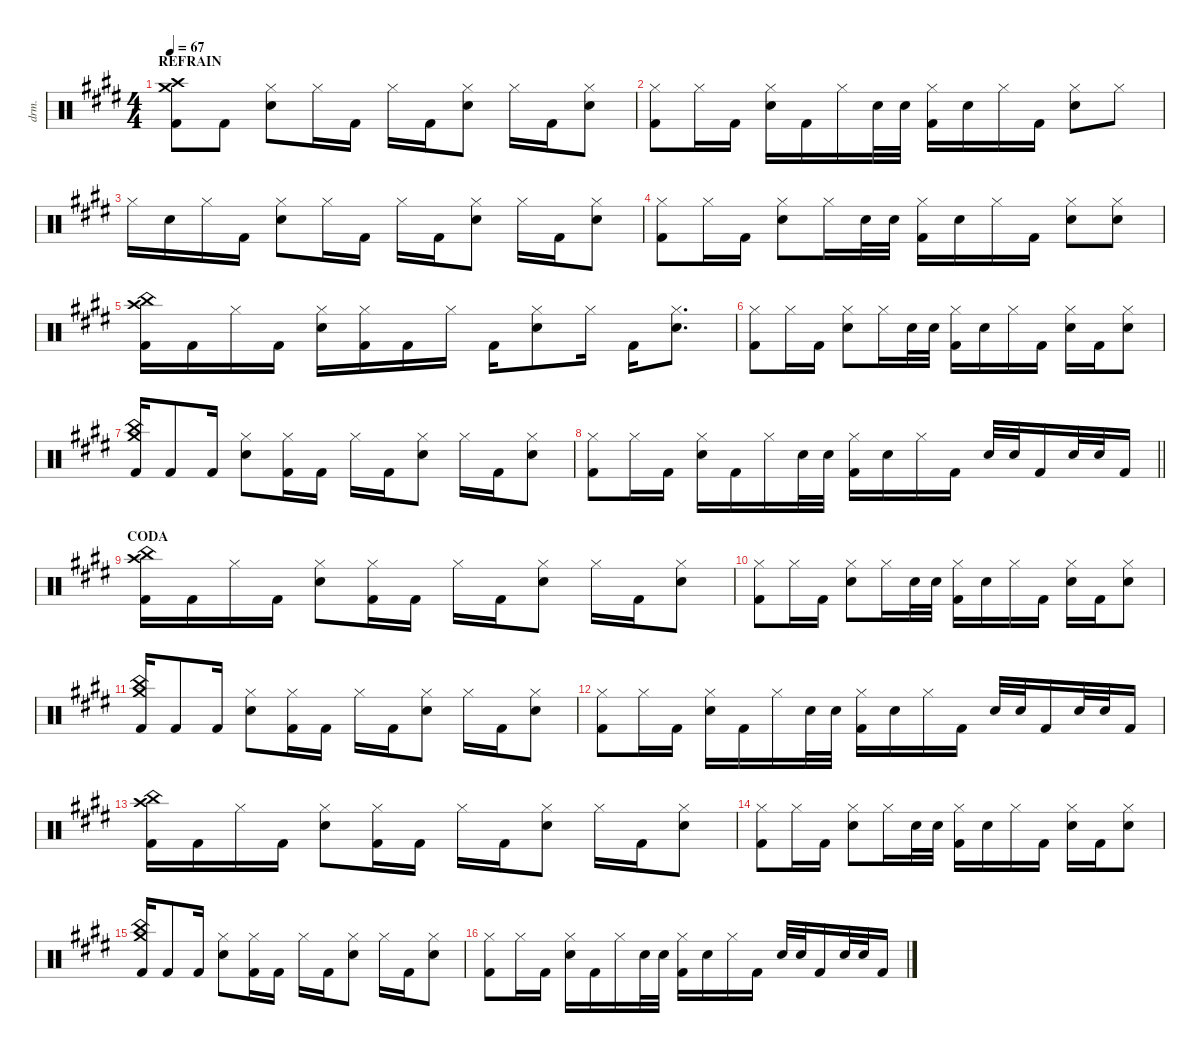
\defaultSystemsLayout 4
\hideDynamics
\bracketExtendMode groupsimilarinstruments
\otherSystemsTrackNameOrientation horizontal
\track ("Drums" "drm.") {defaultSystemsLayout 4 instrument percussion}
\staff {score}
\articulation defaults
\ts (4 4)
\section ("" "REFRAIN")
\tempo 67
\clef neutral
\ks c#minor
("Crash high (hit)"{acc forcenatural} "Kick (hit) 2"{acc forcenatural} "Crash medium (hit)"{acc forcenatural}).8{dy f beam Down} "Kick (hit) 2"{acc forcenatural}.8{beam Down} ("Snare (hit) 2"{acc forcenatural} "Hi-Hat (closed)"{acc forcenatural}).8{beam Down} "Hi-Hat (closed)"{acc forcenatural}.16{beam Down} "Kick (hit) 2"{acc forcenatural}.16{beam Down} "Hi-Hat (closed)"{acc forcenatural}.16{beam Down} "Kick (hit) 2"{acc forcenatural}.16{beam Down} ("Snare (hit) 2"{acc forcenatural} "Hi-Hat (closed)"{acc forcenatural}).8{beam Down} "Hi-Hat (closed)"{acc forcenatural}.16{beam Down} "Kick (hit) 2"{acc forcenatural}.16{beam Down} ("Snare (hit) 2"{acc forcenatural} "Hi-Hat (closed)"{acc forcenatural}).8{beam Down} |
("Kick (hit) 2"{acc forcenatural} "Hi-Hat (closed)"{acc forcenatural}).8{beam Down} "Hi-Hat (closed)"{acc forcenatural}.16{beam Down} "Kick (hit) 2"{acc forcenatural}.16{beam Down} ("Snare (hit) 2"{acc forcenatural} "Hi-Hat (closed)"{acc forcenatural}).16{beam Down} "Kick (hit) 2"{acc forcenatural}.16{beam Down} "Hi-Hat (closed)"{acc forcenatural}.16{beam Down} "Snare (hit) 2"{acc forcenatural}.32{beam Down} "Snare (hit) 2"{acc forcenatural}.32{beam Down} ("Kick (hit) 2"{acc forcenatural} "Hi-Hat (closed)"{acc forcenatural}).16{beam Down} "Snare (hit) 2"{acc forcenatural}.16{beam Down} "Hi-Hat (closed)"{acc forcenatural}.16{beam Down} "Kick (hit) 2"{acc forcenatural}.16{beam Down} ("Snare (hit) 2"{acc forcenatural} "Hi-Hat (closed)"{acc forcenatural}).8{beam Down} "Hi-Hat (closed)"{acc forcenatural}.8{beam Down} |
"Hi-Hat (closed)"{acc forcenatural}.16{beam Down} "Snare (hit) 2"{acc forcenatural}.16{beam Down} "Hi-Hat (closed)"{acc forcenatural}.16{beam Down} "Kick (hit) 2"{acc forcenatural}.16{beam Down} ("Snare (hit) 2"{acc forcenatural} "Hi-Hat (closed)"{acc forcenatural}).8{beam Down} "Hi-Hat (closed)"{acc forcenatural}.16{beam Down} "Kick (hit) 2"{acc forcenatural}.16{beam Down} "Hi-Hat (closed)"{acc forcenatural}.16{beam Down} "Kick (hit) 2"{acc forcenatural}.16{beam Down} ("Snare (hit) 2"{acc forcenatural} "Hi-Hat (closed)"{acc forcenatural}).8{beam Down} "Hi-Hat (closed)"{acc forcenatural}.16{beam Down} "Kick (hit) 2"{acc forcenatural}.16{beam Down} ("Snare (hit) 2"{acc forcenatural} "Hi-Hat (closed)"{acc forcenatural}).8{beam Down} |
("Kick (hit) 2"{acc forcenatural} "Hi-Hat (closed)"{acc forcenatural}).8{beam Down} "Hi-Hat (closed)"{acc forcenatural}.16{beam Down} "Kick (hit) 2"{acc forcenatural}.16{beam Down} ("Snare (hit) 2"{acc forcenatural} "Hi-Hat (closed)"{acc forcenatural}).8{beam Down} "Hi-Hat (closed)"{acc forcenatural}.16{beam Down} "Snare (hit) 2"{acc forcenatural}.32{beam Down} "Snare (hit) 2"{acc forcenatural}.32{beam Down} ("Kick (hit) 2"{acc forcenatural} "Hi-Hat (closed)"{acc forcenatural}).16{beam Down} "Snare (hit) 2"{acc forcenatural}.16{beam Down} "Hi-Hat (closed)"{acc forcenatural}.16{beam Down} "Kick (hit) 2"{acc forcenatural}.16{beam Down} ("Snare (hit) 2"{acc forcenatural} "Hi-Hat (closed)"{acc forcenatural}).8{beam Down} ("Snare (hit) 2"{acc forcenatural} "Hi-Hat (closed)"{acc forcenatural}).8{beam Down} |
("China (hit)"{acc forcenatural} "Crash high (hit)"{acc forcenatural} "Kick (hit) 2"{acc forcenatural}).16{beam Down} "Kick (hit) 2"{acc forcenatural}.16{beam Down} "Hi-Hat (closed)"{acc forcenatural}.16{beam Down} "Kick (hit) 2"{acc forcenatural}.16{beam Down} ("Snare (hit) 2"{acc forcenatural} "Hi-Hat (closed)"{acc forcenatural}).16{beam Down} ("Kick (hit) 2"{acc forcenatural} "Hi-Hat (closed)"{acc forcenatural}).16{beam Down} "Kick (hit) 2"{acc forcenatural}.16{beam Down} "Hi-Hat (closed)"{acc forcenatural}.16{beam Down} "Kick (hit) 2"{acc forcenatural}.16{beam Down} ("Snare (hit) 2"{acc forcenatural} "Hi-Hat (closed)"{acc forcenatural}).8{beam Down} "Hi-Hat (closed)"{acc forcenatural}.16{beam Down} "Kick (hit) 2"{acc forcenatural}.16{beam Down} ("Snare (hit) 2"{acc forcenatural} "Hi-Hat (closed)"{acc forcenatural}).8{d beam Down} |
("Kick (hit) 2"{acc forcenatural} "Hi-Hat (closed)"{acc forcenatural}).8{beam Down} "Hi-Hat (closed)"{acc forcenatural}.16{beam Down} "Kick (hit) 2"{acc forcenatural}.16{beam Down} ("Snare (hit) 2"{acc forcenatural} "Hi-Hat (closed)"{acc forcenatural}).8{beam Down} "Hi-Hat (closed)"{acc forcenatural}.16{beam Down} "Snare (hit) 2"{acc forcenatural}.32{beam Down} "Snare (hit) 2"{acc forcenatural}.32{beam Down} ("Kick (hit) 2"{acc forcenatural} "Hi-Hat (closed)"{acc forcenatural}).16{beam Down} "Snare (hit) 2"{acc forcenatural}.16{beam Down} "Hi-Hat (closed)"{acc forcenatural}.16{beam Down} "Kick (hit) 2"{acc forcenatural}.16{beam Down} ("Snare (hit) 2"{acc forcenatural} "Hi-Hat (closed)"{acc forcenatural}).16{beam Down} "Kick (hit) 2"{acc forcenatural}.16{beam Down} ("Snare (hit) 2"{acc forcenatural} "Hi-Hat (closed)"{acc forcenatural}).8{beam Down} |
("China (hit)"{acc forcenatural} "Crash medium (hit)"{acc forcenatural} "Kick (hit) 2"{acc forcenatural}).16{beam Up} "Kick (hit) 2"{acc forcenatural}.8{beam Up} "Kick (hit) 2"{acc forcenatural}.16{beam Up} ("Snare (hit) 2"{acc forcenatural} "Hi-Hat (closed)"{acc forcenatural}).8{beam Down} ("Kick (hit) 2"{acc forcenatural} "Hi-Hat (closed)"{acc forcenatural}).16{beam Down} "Kick (hit) 2"{acc forcenatural}.16{beam Down} "Hi-Hat (closed)"{acc forcenatural}.16{beam Down} "Kick (hit) 2"{acc forcenatural}.16{beam Down} ("Snare (hit) 2"{acc forcenatural} "Hi-Hat (closed)"{acc forcenatural}).8{beam Down} "Hi-Hat (closed)"{acc forcenatural}.16{beam Down} "Kick (hit) 2"{acc forcenatural}.16{beam Down} ("Snare (hit) 2"{acc forcenatural} "Hi-Hat (closed)"{acc forcenatural}).8{beam Down} |
\barLineRight lightlight
("Kick (hit) 2"{acc forcenatural} "Hi-Hat (closed)"{acc forcenatural}).8{beam Down} "Hi-Hat (closed)"{acc forcenatural}.16{beam Down} "Kick (hit) 2"{acc forcenatural}.16{beam Down} ("Snare (hit) 2"{acc forcenatural} "Hi-Hat (closed)"{acc forcenatural}).16{beam Down} "Kick (hit) 2"{acc forcenatural}.16{beam Down} "Hi-Hat (closed)"{acc forcenatural}.16{beam Down} "Snare (hit) 2"{acc forcenatural}.32{beam Down} "Snare (hit) 2"{acc forcenatural}.32{beam Down} ("Kick (hit) 2"{acc forcenatural} "Hi-Hat (closed)"{acc forcenatural}).16{beam Down} "Snare (hit) 2"{acc forcenatural}.16{beam Down} "Hi-Hat (closed)"{acc forcenatural}.16{beam Down} "Kick (hit) 2"{acc forcenatural}.16{beam Down} "Snare (hit) 2"{acc forcenatural}.32{beam Up} "Snare (hit) 2"{acc forcenatural}.32{beam Up} "Kick (hit) 2"{acc forcenatural}.16{beam Up} "Snare (hit) 2"{acc forcenatural}.32{dy mf beam Up} "Snare (hit) 2"{acc forcenatural}.32{dy f beam Up} "Kick (hit) 2"{acc forcenatural}.16{beam Up} |
\section ("" "CODA")
("China (hit)"{acc forcenatural} "Crash high (hit)"{acc forcenatural} "Kick (hit) 2"{acc forcenatural}).16{beam Down} "Kick (hit) 2"{acc forcenatural}.16{beam Down} "Hi-Hat (closed)"{acc forcenatural}.16{beam Down} "Kick (hit) 2"{acc forcenatural}.16{beam Down} ("Snare (hit) 2"{acc forcenatural} "Hi-Hat (closed)"{acc forcenatural}).8{beam Down} ("Kick (hit) 2"{acc forcenatural} "Hi-Hat (closed)"{acc forcenatural}).16{beam Down} "Kick (hit) 2"{acc forcenatural}.16{beam Down} "Hi-Hat (closed)"{acc forcenatural}.16{beam Down} "Kick (hit) 2"{acc forcenatural}.16{beam Down} ("Snare (hit) 2"{acc forcenatural} "Hi-Hat (closed)"{acc forcenatural}).8{beam Down} "Hi-Hat (closed)"{acc forcenatural}.16{beam Down} "Kick (hit) 2"{acc forcenatural}.16{beam Down} ("Snare (hit) 2"{acc forcenatural} "Hi-Hat (closed)"{acc forcenatural}).8{beam Down} |
("Kick (hit) 2"{acc forcenatural} "Hi-Hat (closed)"{acc forcenatural}).8{beam Down} "Hi-Hat (closed)"{acc forcenatural}.16{beam Down} "Kick (hit) 2"{acc forcenatural}.16{beam Down} ("Snare (hit) 2"{acc forcenatural} "Hi-Hat (closed)"{acc forcenatural}).8{beam Down} "Hi-Hat (closed)"{acc forcenatural}.16{beam Down} "Snare (hit) 2"{acc forcenatural}.32{beam Down} "Snare (hit) 2"{acc forcenatural}.32{beam Down} ("Kick (hit) 2"{acc forcenatural} "Hi-Hat (closed)"{acc forcenatural}).16{beam Down} "Snare (hit) 2"{acc forcenatural}.16{beam Down} "Hi-Hat (closed)"{acc forcenatural}.16{beam Down} "Kick (hit) 2"{acc forcenatural}.16{beam Down} ("Snare (hit) 2"{acc forcenatural} "Hi-Hat (closed)"{acc forcenatural}).16{beam Down} "Kick (hit) 2"{acc forcenatural}.16{beam Down} ("Snare (hit) 2"{acc forcenatural} "Hi-Hat (closed)"{acc forcenatural}).8{beam Down} |
("China (hit)"{acc forcenatural} "Crash medium (hit)"{acc forcenatural} "Kick (hit) 2"{acc forcenatural}).16{beam Up} "Kick (hit) 2"{acc forcenatural}.8{beam Up} "Kick (hit) 2"{acc forcenatural}.16{beam Up} ("Snare (hit) 2"{acc forcenatural} "Hi-Hat (closed)"{acc forcenatural}).8{beam Down} ("Kick (hit) 2"{acc forcenatural} "Hi-Hat (closed)"{acc forcenatural}).16{beam Down} "Kick (hit) 2"{acc forcenatural}.16{beam Down} "Hi-Hat (closed)"{acc forcenatural}.16{beam Down} "Kick (hit) 2"{acc forcenatural}.16{beam Down} ("Snare (hit) 2"{acc forcenatural} "Hi-Hat (closed)"{acc forcenatural}).8{beam Down} "Hi-Hat (closed)"{acc forcenatural}.16{beam Down} "Kick (hit) 2"{acc forcenatural}.16{beam Down} ("Snare (hit) 2"{acc forcenatural} "Hi-Hat (closed)"{acc forcenatural}).8{beam Down} |
("Kick (hit) 2"{acc forcenatural} "Hi-Hat (closed)"{acc forcenatural}).8{beam Down} "Hi-Hat (closed)"{acc forcenatural}.16{beam Down} "Kick (hit) 2"{acc forcenatural}.16{beam Down} ("Snare (hit) 2"{acc forcenatural} "Hi-Hat (closed)"{acc forcenatural}).16{beam Down} "Kick (hit) 2"{acc forcenatural}.16{beam Down} "Hi-Hat (closed)"{acc forcenatural}.16{beam Down} "Snare (hit) 2"{acc forcenatural}.32{beam Down} "Snare (hit) 2"{acc forcenatural}.32{beam Down} ("Kick (hit) 2"{acc forcenatural} "Hi-Hat (closed)"{acc forcenatural}).16{beam Down} "Snare (hit) 2"{acc forcenatural}.16{beam Down} "Hi-Hat (closed)"{acc forcenatural}.16{beam Down} "Kick (hit) 2"{acc forcenatural}.16{beam Down} "Snare (hit) 2"{acc forcenatural}.32{beam Up} "Snare (hit) 2"{acc forcenatural}.32{beam Up} "Kick (hit) 2"{acc forcenatural}.16{beam Up} "Snare (hit) 2"{acc forcenatural}.32{dy mf beam Up} "Snare (hit) 2"{acc forcenatural}.32{dy f beam Up} "Kick (hit) 2"{acc forcenatural}.16{beam Up} |
("China (hit)"{acc forcenatural} "Crash high (hit)"{acc forcenatural} "Kick (hit) 2"{acc forcenatural}).16{beam Down} "Kick (hit) 2"{acc forcenatural}.16{beam Down} "Hi-Hat (closed)"{acc forcenatural}.16{beam Down} "Kick (hit) 2"{acc forcenatural}.16{beam Down} ("Snare (hit) 2"{acc forcenatural} "Hi-Hat (closed)"{acc forcenatural}).8{beam Down} ("Kick (hit) 2"{acc forcenatural} "Hi-Hat (closed)"{acc forcenatural}).16{beam Down} "Kick (hit) 2"{acc forcenatural}.16{beam Down} "Hi-Hat (closed)"{acc forcenatural}.16{beam Down} "Kick (hit) 2"{acc forcenatural}.16{beam Down} ("Snare (hit) 2"{acc forcenatural} "Hi-Hat (closed)"{acc forcenatural}).8{beam Down} "Hi-Hat (closed)"{acc forcenatural}.16{beam Down} "Kick (hit) 2"{acc forcenatural}.16{beam Down} ("Snare (hit) 2"{acc forcenatural} "Hi-Hat (closed)"{acc forcenatural}).8{beam Down} |
("Kick (hit) 2"{acc forcenatural} "Hi-Hat (closed)"{acc forcenatural}).8{beam Down} "Hi-Hat (closed)"{acc forcenatural}.16{dy mf beam Down} "Kick (hit) 2"{acc forcenatural}.16{dy f beam Down} ("Snare (hit) 2"{acc forcenatural} "Hi-Hat (closed)"{acc forcenatural}).8{beam Down} "Hi-Hat (closed)"{acc forcenatural}.16{dy mf beam Down} "Snare (hit) 2"{acc forcenatural}.32{dy f beam Down} "Snare (hit) 2"{acc forcenatural}.32{beam Down} ("Kick (hit) 2"{acc forcenatural} "Hi-Hat (closed)"{acc forcenatural}).16{beam Down} "Snare (hit) 2"{acc forcenatural}.16{beam Down} "Hi-Hat (closed)"{acc forcenatural}.16{dy mf beam Down} "Kick (hit) 2"{acc forcenatural}.16{dy f beam Down} ("Snare (hit) 2"{acc forcenatural} "Hi-Hat (closed)"{acc forcenatural}).16{beam Down} "Kick (hit) 2"{acc forcenatural}.16{beam Down} ("Snare (hit) 2"{acc forcenatural} "Hi-Hat (closed)"{acc forcenatural}).8{beam Down} |
("China (hit)"{acc forcenatural} "Crash medium (hit)"{acc forcenatural} "Kick (hit) 2"{acc forcenatural}).16{dy mf beam Up} "Kick (hit) 2"{acc forcenatural}.8{dy f beam Up} "Kick (hit) 2"{acc forcenatural}.16{beam Up} ("Snare (hit) 2"{acc forcenatural} "Hi-Hat (closed)"{acc forcenatural}).8{beam Down} ("Kick (hit) 2"{acc forcenatural} "Hi-Hat (closed)"{acc forcenatural}).16{beam Down} "Kick (hit) 2"{acc forcenatural}.16{beam Down} "Hi-Hat (closed)"{acc forcenatural}.16{dy mp beam Down} "Kick (hit) 2"{acc forcenatural}.16{dy f beam Down} ("Snare (hit) 2"{acc forcenatural} "Hi-Hat (closed)"{acc forcenatural}).8{beam Down} "Hi-Hat (closed)"{acc forcenatural}.16{dy p beam Down} "Kick (hit) 2"{acc forcenatural}.16{dy f beam Down} ("Snare (hit) 2"{acc forcenatural} "Hi-Hat (closed)"{acc forcenatural}).8{beam Down} |
("Kick (hit) 2"{acc forcenatural} "Hi-Hat (closed)"{acc forcenatural}).8{beam Down} "Hi-Hat (closed)"{acc forcenatural}.16{dy p beam Down} "Kick (hit) 2"{acc forcenatural}.16{dy f beam Down} ("Snare (hit) 2"{acc forcenatural} "Hi-Hat (closed)"{acc forcenatural}).16{beam Down} "Kick (hit) 2"{acc forcenatural}.16{beam Down} "Hi-Hat (closed)"{acc forcenatural}.16{dy p beam Down} "Snare (hit) 2"{acc forcenatural}.32{dy f beam Down} "Snare (hit) 2"{acc forcenatural}.32{beam Down} ("Kick (hit) 2"{acc forcenatural} "Hi-Hat (closed)"{acc forcenatural}).16{beam Down} "Snare (hit) 2"{acc forcenatural}.16{beam Down} "Hi-Hat (closed)"{acc forcenatural}.16{dy pp beam Down} "Kick (hit) 2"{acc forcenatural}.16{dy f beam Down} "Snare (hit) 2"{acc forcenatural}.32{beam Up} "Snare (hit) 2"{acc forcenatural}.32{beam Up} "Kick (hit) 2"{acc forcenatural}.16{beam Up} "Snare (hit) 2"{acc forcenatural}.32{beam Up} "Snare (hit) 2"{acc forcenatural}.32{beam Up} "Kick (hit) 2"{acc forcenatural}.16{beam Up}
